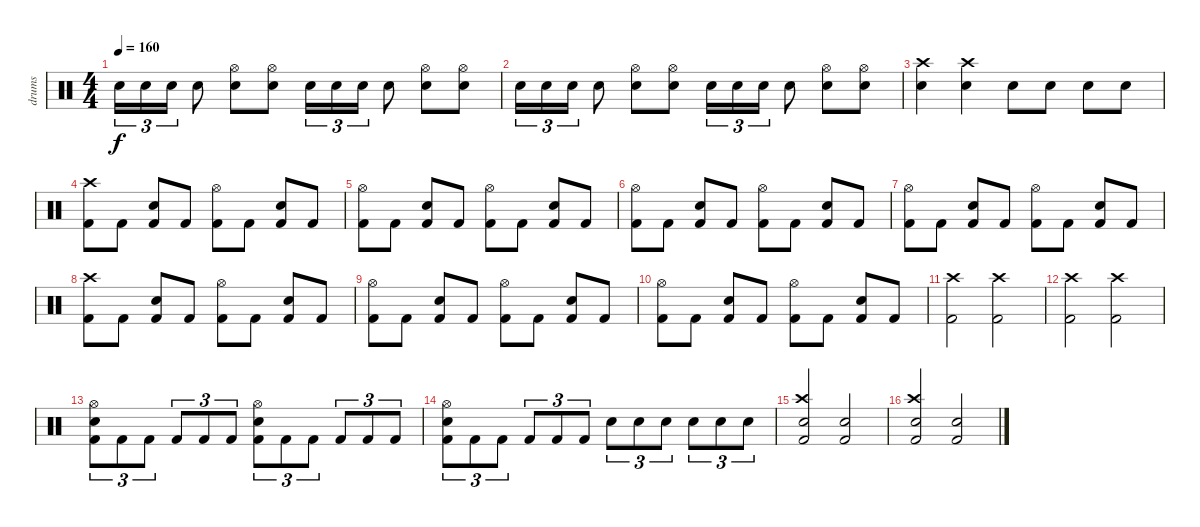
\track ("drums" "drums") {instrument percussion}
\staff {score}
\articulation defaults
\ts (4 4)
\tempo 160
\clef neutral
\ks c "Electric Snare (hit)".16{tu (3 2) dy f} "Electric Snare (hit)".16{tu (3 2)} "Electric Snare (hit)".16{tu (3 2)} "Electric Snare (hit)".8
("Hi-Hat (open)" "Electric Snare (hit)").8 ("Hi-Hat (open)" "Electric Snare (hit)").8 "Snare (hit) 2".16{tu (3 2)} "Snare (hit) 2".16{tu (3 2)} "Snare (hit) 2".16{tu (3 2)} "Snare (hit) 2".8 ("Hi-Hat (open)" "Electric Snare (hit)").8 ("Hi-Hat (open)" "Electric Snare (hit)").8 |
"Electric Snare (hit)".16{tu (3 2)} "Electric Snare (hit)".16{tu (3 2)} "Electric Snare (hit)".16{tu (3 2)} "Electric Snare (hit)".8 ("Hi-Hat (open)" "Electric Snare (hit)").8 ("Hi-Hat (open)" "Electric Snare (hit)").8 "Snare (hit) 2".16{tu (3 2)} "Snare (hit) 2".16{tu (3 2)} "Snare (hit) 2".16{tu (3 2)} "Snare (hit) 2".8 ("Hi-Hat (open)" "Electric Snare (hit)").8 ("Hi-Hat (open)" "Electric Snare (hit)").8 |
("Crash high (hit)" "Electric Snare (hit)").4 ("Crash high (hit)" "Snare (hit) 2").4 "Electric Snare (hit)".8 "Electric Snare (hit)".8 "Electric Snare (hit)".8 "Electric Snare (hit)".8 |
("Crash high (hit)" "Kick (hit) 2").8 "Kick (hit) 2".8 ("Electric Snare (hit)" "Kick (hit) 2").8 "Kick (hit) 2".8 ("Hi-Hat (open)" "Kick (hit) 2").8 "Kick (hit) 2".8 ("Electric Snare (hit)" "Kick (hit) 2").8 "Kick (hit) 2".8 |
("Hi-Hat (open)" "Kick (hit) 2").8 "Kick (hit) 2".8 ("Electric Snare (hit)" "Kick (hit) 2").8 "Kick (hit) 2".8 ("Hi-Hat (open)" "Kick (hit) 2").8 "Kick (hit) 2".8 ("Electric Snare (hit)" "Kick (hit) 2").8 "Kick (hit) 2".8 |
("Hi-Hat (open)" "Kick (hit) 2").8 "Kick (hit) 2".8 ("Electric Snare (hit)" "Kick (hit) 2").8 "Kick (hit) 2".8 ("Hi-Hat (open)" "Kick (hit) 2").8 "Kick (hit) 2".8 ("Electric Snare (hit)" "Kick (hit) 2").8 "Kick (hit) 2".8 |
("Hi-Hat (open)" "Kick (hit) 2").8 "Kick (hit) 2".8 ("Electric Snare (hit)" "Kick (hit) 2").8 "Kick (hit) 2".8 ("Hi-Hat (open)" "Kick (hit) 2").8 "Kick (hit) 2".8 ("Electric Snare (hit)" "Kick (hit) 2").8 "Kick (hit) 2".8 |
("Crash high (hit)" "Kick (hit) 2").8 "Kick (hit) 2".8 ("Electric Snare (hit)" "Kick (hit) 2").8 "Kick (hit) 2".8 ("Hi-Hat (open)" "Kick (hit) 2").8 "Kick (hit) 2".8 ("Electric Snare (hit)" "Kick (hit) 2").8 "Kick (hit) 2".8 |
("Hi-Hat (open)" "Kick (hit) 2").8 "Kick (hit) 2".8 ("Electric Snare (hit)" "Kick (hit) 2").8 "Kick (hit) 2".8 ("Hi-Hat (open)" "Kick (hit) 2").8 "Kick (hit) 2".8 ("Electric Snare (hit)" "Kick (hit) 2").8 "Kick (hit) 2".8 |
("Hi-Hat (open)" "Kick (hit) 2").8 "Kick (hit) 2".8 ("Electric Snare (hit)" "Kick (hit) 2").8 "Kick (hit) 2".8 ("Hi-Hat (open)" "Kick (hit) 2").8 "Kick (hit) 2".8 ("Electric Snare (hit)" "Kick (hit) 2").8 "Kick (hit) 2".8 |
("Crash high (hit)" "Kick (hit) 2").2 ("Crash high (hit)" "Kick (hit) 2").2 |
("Crash high (hit)" "Kick (hit) 2").2 ("Crash high (hit)" "Kick (hit) 2").2 |
("Hi-Hat (open)" "Snare (hit) 2" "Kick (hit) 2").8{tu (3 2)} "Kick (hit) 2".8{tu (3 2)} "Kick (hit) 2".8{tu (3 2)} "Kick (hit) 2".8{tu (3 2)} "Kick (hit) 2".8{tu (3 2)} "Kick (hit) 2".8{tu (3 2)} ("Hi-Hat (open)" "Snare (hit) 2" "Kick (hit) 2").8{tu (3 2)} "Kick (hit) 2".8{tu (3 2)} "Kick (hit) 2".8{tu (3 2)} "Kick (hit) 2".8{tu (3 2)} "Kick (hit) 2".8{tu (3 2)} "Kick (hit) 2".8{tu (3 2)} |
("Hi-Hat (open)" "Snare (hit) 2" "Kick (hit) 2").8{tu (3 2)} "Kick (hit) 2".8{tu (3 2)} "Kick (hit) 2".8{tu (3 2)} "Kick (hit) 2".8{tu (3 2)} "Kick (hit) 2".8{tu (3 2)} "Kick (hit) 2".8{tu (3 2)} "Electric Snare (hit)".8{tu (3 2)} "Electric Snare (hit)".8{tu (3 2)} "Electric Snare (hit)".8{tu (3 2)} "Snare (hit) 2".8{tu (3 2)} "Snare (hit) 2".8{tu (3 2)} "Snare (hit) 2".8{tu (3 2)} |
("Crash high (hit)" "Electric Snare (hit)" "Kick (hit) 2").2 ("Snare (hit) 2" "Kick (hit) 2").2 |
("Crash high (hit)" "Electric Snare (hit)" "Kick (hit) 2").2 ("Snare (hit) 2" "Kick (hit) 2").2
